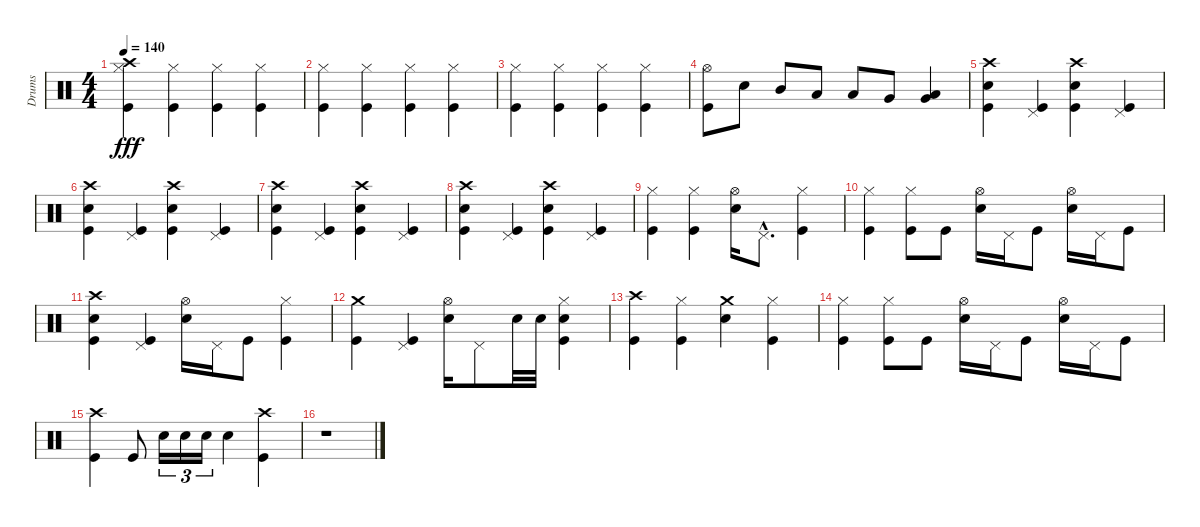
\track ("Drums" "Drums") {instrument percussion}
\staff {score}
\articulation defaults
\ts (4 4)
\tempo 140
\clef neutral
\ks c
("Hi-Hat (closed)" "Crash high (hit)" "Kick (hit)").4{dy fff} ("Hi-Hat (closed)" "Kick (hit)").4 ("Hi-Hat (closed)" "Kick (hit)").4 ("Hi-Hat (closed)" "Kick (hit)").4 |
("Hi-Hat (closed)" "Kick (hit)").4 ("Hi-Hat (closed)" "Kick (hit)").4 ("Hi-Hat (closed)" "Kick (hit)").4 ("Hi-Hat (closed)" "Kick (hit)").4 |
("Hi-Hat (closed)" "Kick (hit)").4 ("Hi-Hat (closed)" "Kick (hit)").4 ("Hi-Hat (closed)" "Kick (hit)").4 ("Hi-Hat (closed)" "Kick (hit)").4 |
("Hi-Hat (open)" "Kick (hit)").8 "Electric Snare (hit)".8 "Mid Tom (hit)".8 "Low Tom (hit)".8 "Low Tom (hit)".8 "Very Low Tom (hit)".8 ("Very Low Tom (hit)" "Low Floor Tom (hit)").4 |
("Crash high (hit)" "Electric Snare (hit)" "Kick (hit)").4 ("Pedal Hi-Hat (hit)" "Kick (hit)").4 ("Crash high (hit)" "Electric Snare (hit)" "Kick (hit)").4 ("Pedal Hi-Hat (hit)" "Kick (hit)").4 |
("Crash high (hit)" "Electric Snare (hit)" "Kick (hit)").4 ("Pedal Hi-Hat (hit)" "Kick (hit)").4 ("Crash high (hit)" "Electric Snare (hit)" "Kick (hit)").4 ("Pedal Hi-Hat (hit)" "Kick (hit)").4 |
("Crash high (hit)" "Electric Snare (hit)" "Kick (hit)").4 ("Pedal Hi-Hat (hit)" "Kick (hit)").4 ("Crash high (hit)" "Electric Snare (hit)" "Kick (hit)").4 ("Pedal Hi-Hat (hit)" "Kick (hit)").4 |
("Crash high (hit)" "Electric Snare (hit)" "Kick (hit)").4 ("Pedal Hi-Hat (hit)" "Kick (hit)").4 ("Crash high (hit)" "Electric Snare (hit)" "Kick (hit)").4 ("Pedal Hi-Hat (hit)" "Kick (hit)").4 |
("Hi-Hat (closed)" "Kick (hit)").4 ("Hi-Hat (closed)" "Kick (hit)").4 ("Hi-Hat (open)" "Electric Snare (hit)").16 "Pedal Hi-Hat (hit)"{hac}.8{d} ("Hi-Hat (closed)" "Kick (hit)").4 |
("Hi-Hat (closed)" "Kick (hit)").4 ("Hi-Hat (closed)" "Kick (hit)").8 "Kick (hit)".8 ("Hi-Hat (open)" "Electric Snare (hit)").16 "Pedal Hi-Hat (hit)".16 "Kick (hit)".8 ("Hi-Hat (open)" "Electric Snare (hit)").16 "Pedal Hi-Hat (hit)".16 "Kick (hit)".8 |
("Crash high (hit)" "Electric Snare (hit)" "Kick (hit)").4 ("Pedal Hi-Hat (hit)" "Kick (hit)").4 ("Hi-Hat (open)" "Electric Snare (hit)").16 "Pedal Hi-Hat (hit)".16 "Kick (hit)".8 ("Hi-Hat (closed)" "Kick (hit)").4 |
("Crash medium (hit)" "Kick (hit)").4 ("Pedal Hi-Hat (hit)" "Kick (hit)").4 ("Hi-Hat (open)" "Electric Snare (hit)").16 "Pedal Hi-Hat (hit)".8 "Electric Snare (hit)".32 "Electric Snare (hit)".32 ("Hi-Hat (closed)" "Electric Snare (hit)" "Kick (hit)").4 |
("Crash high (hit)" "Kick (hit)").4 ("Hi-Hat (closed)" "Kick (hit)").4 ("Crash medium (hit)" "Electric Snare (hit)").4 ("Hi-Hat (closed)" "Kick (hit)").4 |
("Hi-Hat (closed)" "Kick (hit)").4 ("Hi-Hat (closed)" "Kick (hit)").8 "Kick (hit)".8 ("Hi-Hat (open)" "Electric Snare (hit)").16 "Pedal Hi-Hat (hit)".16 "Kick (hit)".8 ("Hi-Hat (open)" "Electric Snare (hit)").16 "Pedal Hi-Hat (hit)".16 "Kick (hit)".8 |
("Crash high (hit)" "Kick (hit)").4 "Kick (hit)".8 "Electric Snare (hit)".16{tu (3 2)} "Electric Snare (hit)".16{tu (3 2)} "Electric Snare (hit)".16{tu (3 2)} "Electric Snare (hit)".4 ("Crash high (hit)" "Kick (hit)").4 |
r.1
